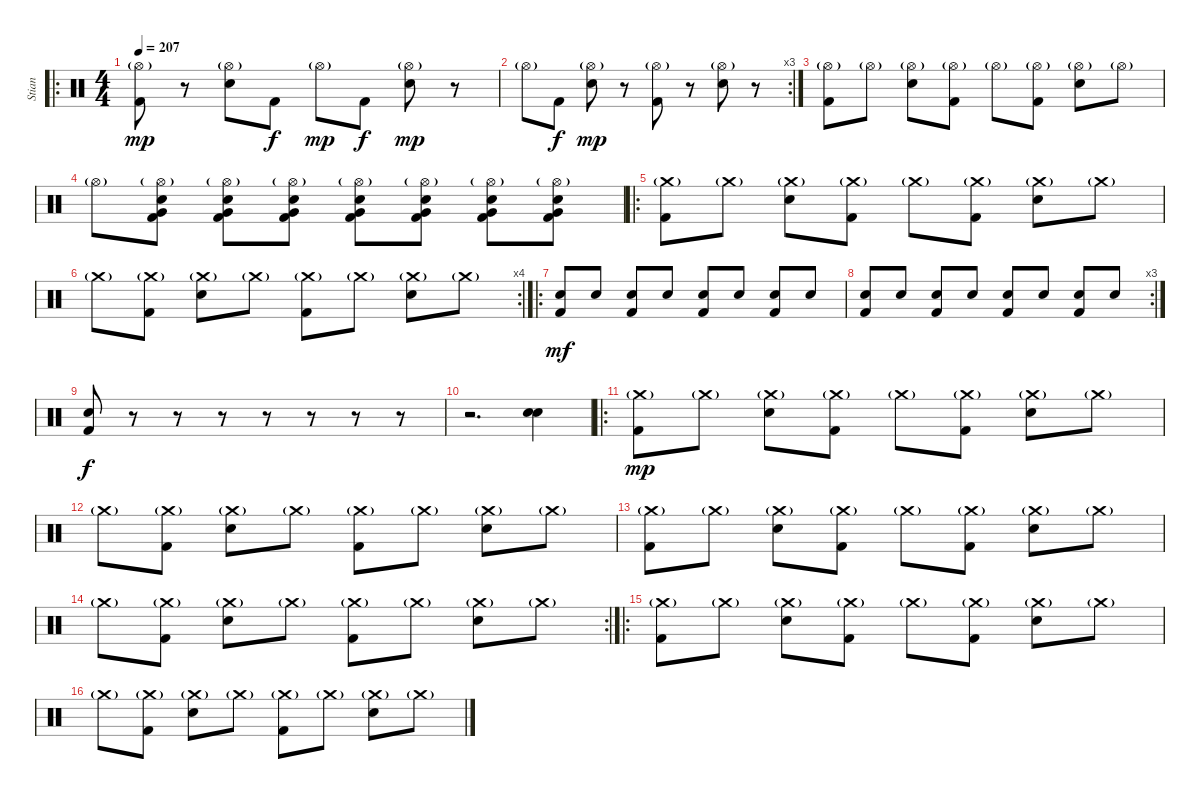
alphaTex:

\track ("Stian" "Stian") {instrument percussion}
\staff {score}
\articulation defaults
\ro
\ts (4 4)
\tempo 207
\clef neutral
\ks c
("Hi-Hat (open)"{g} "Kick (hit) 2").8{dy mp} r.8 ("Hi-Hat (open)"{g} "Electric Snare (hit)").8 "Kick (hit) 2".8{dy f} "Hi-Hat (open)"{g}.8{dy mp} "Kick (hit) 2".8{dy f} ("Hi-Hat (open)"{g} "Electric Snare (hit)").8{dy mp} r.8 |
\rc 3 "Hi-Hat (open)"{g}.8 "Kick (hit) 2".8{dy f}
("Hi-Hat (open)"{g} "Electric Snare (hit)").8{dy mp} r.8 ("Hi-Hat (open)"{g} "Kick (hit) 2").8 r.8 ("Hi-Hat (open)"{g} "Electric Snare (hit)").8 r.8 |
("Hi-Hat (open)"{g} "Kick (hit) 2").8 "Hi-Hat (open)"{g}.8 ("Hi-Hat (open)"{g} "Electric Snare (hit)").8 ("Hi-Hat (open)"{g} "Kick (hit) 2").8 "Hi-Hat (open)"{g}.8 ("Hi-Hat (open)"{g} "Kick (hit) 2").8 ("Hi-Hat (open)"{g} "Electric Snare (hit)").8 "Hi-Hat (open)"{g}.8 |
"Hi-Hat (open)"{g}.8 ("Hi-Hat (open)"{g} "Electric Snare (hit)" "Very Low Tom (hit)" "Kick (hit) 2").8 ("Hi-Hat (open)"{g} "Electric Snare (hit)" "Very Low Tom (hit)" "Kick (hit) 2").8 ("Hi-Hat (open)"{g} "Electric Snare (hit)" "Very Low Tom (hit)" "Kick (hit) 2").8 ("Hi-Hat (open)"{g} "Electric Snare (hit)" "Very Low Tom (hit)" "Kick (hit) 2").8 ("Hi-Hat (open)"{g} "Electric Snare (hit)" "Very Low Tom (hit)" "Kick (hit) 2").8 ("Hi-Hat (open)"{g} "Electric Snare (hit)" "Very Low Tom (hit)" "Kick (hit) 2").8 ("Hi-Hat (open)"{g} "Electric Snare (hit)" "Very Low Tom (hit)" "Kick (hit) 2").8 |
\ro
("Crash medium (hit)"{g} "Kick (hit) 2").8 "Crash medium (hit)"{g}.8 ("Crash medium (hit)"{g} "Electric Snare (hit)").8 ("Crash medium (hit)"{g} "Kick (hit) 2").8 "Crash medium (hit)"{g}.8 ("Crash medium (hit)"{g} "Kick (hit) 2").8 ("Crash medium (hit)"{g} "Electric Snare (hit)").8 "Crash medium (hit)"{g}.8 |
\rc 4 "Crash medium (hit)"{g}.8
("Crash medium (hit)"{g} "Kick (hit) 2").8 ("Crash medium (hit)"{g} "Electric Snare (hit)").8 "Crash medium (hit)"{g}.8 ("Crash medium (hit)"{g} "Kick (hit) 2").8 "Crash medium (hit)"{g}.8 ("Crash medium (hit)"{g} "Electric Snare (hit)").8 "Crash medium (hit)"{g}.8 |
\ro
("Kick (hit) 2" "Electric Snare (hit)").8{dy mf} "Electric Snare (hit)".8 ("Kick (hit) 2" "Electric Snare (hit)").8 "Electric Snare (hit)".8 ("Kick (hit) 2" "Electric Snare (hit)").8 "Electric Snare (hit)".8 ("Kick (hit) 2" "Electric Snare (hit)").8 "Electric Snare (hit)".8 |
\rc 3
("Kick (hit) 2" "Electric Snare (hit)").8 "Electric Snare (hit)".8 ("Kick (hit) 2" "Electric Snare (hit)").8 "Electric Snare (hit)".8 ("Kick (hit) 2" "Electric Snare (hit)").8 "Electric Snare (hit)".8 ("Kick (hit) 2" "Electric Snare (hit)").8 "Electric Snare (hit)".8 |
("Kick (hit) 2" "Electric Snare (hit)").8{dy f} r.8 r.8 r.8 r.8 r.8 r.8 r.8 |
r.2{d} ("Electric Snare (hit)" "Electric Snare (hit)").4{bd 240} |
\ro
("Crash medium (hit)"{g} "Kick (hit) 2").8{dy mp} "Crash medium (hit)"{g}.8 ("Crash medium (hit)"{g} "Electric Snare (hit)").8 ("Crash medium (hit)"{g} "Kick (hit) 2").8 "Crash medium (hit)"{g}.8 ("Crash medium (hit)"{g} "Kick (hit) 2").8 ("Crash medium (hit)"{g} "Electric Snare (hit)").8 "Crash medium (hit)"{g}.8 |
"Crash medium (hit)"{g}.8 ("Crash medium (hit)"{g} "Kick (hit) 2").8 ("Crash medium (hit)"{g} "Electric Snare (hit)").8 "Crash medium (hit)"{g}.8 ("Crash medium (hit)"{g} "Kick (hit) 2").8 "Crash medium (hit)"{g}.8 ("Crash medium (hit)"{g} "Electric Snare (hit)").8 "Crash medium (hit)"{g}.8 |
("Crash medium (hit)"{g} "Kick (hit) 2").8 "Crash medium (hit)"{g}.8 ("Crash medium (hit)"{g} "Electric Snare (hit)").8 ("Crash medium (hit)"{g} "Kick (hit) 2").8 "Crash medium (hit)"{g}.8 ("Crash medium (hit)"{g} "Kick (hit) 2").8 ("Crash medium (hit)"{g} "Electric Snare (hit)").8 "Crash medium (hit)"{g}.8 |
\rc 2 "Crash medium (hit)"{g}.8
("Crash medium (hit)"{g} "Kick (hit) 2").8 ("Crash medium (hit)"{g} "Electric Snare (hit)").8 "Crash medium (hit)"{g}.8 ("Crash medium (hit)"{g} "Kick (hit) 2").8 "Crash medium (hit)"{g}.8 ("Crash medium (hit)"{g} "Electric Snare (hit)").8 "Crash medium (hit)"{g}.8 |
\ro
("Crash medium (hit)"{g} "Kick (hit) 2").8 "Crash medium (hit)"{g}.8 ("Crash medium (hit)"{g} "Electric Snare (hit)").8 ("Crash medium (hit)"{g} "Kick (hit) 2").8 "Crash medium (hit)"{g}.8 ("Crash medium (hit)"{g} "Kick (hit) 2").8 ("Crash medium (hit)"{g} "Electric Snare (hit)").8 "Crash medium (hit)"{g}.8 |
"Crash medium (hit)"{g}.8 ("Crash medium (hit)"{g} "Kick (hit) 2").8 ("Crash medium (hit)"{g} "Electric Snare (hit)").8 "Crash medium (hit)"{g}.8 ("Crash medium (hit)"{g} "Kick (hit) 2").8 "Crash medium (hit)"{g}.8 ("Crash medium (hit)"{g} "Electric Snare (hit)").8 "Crash medium (hit)"{g}.8
